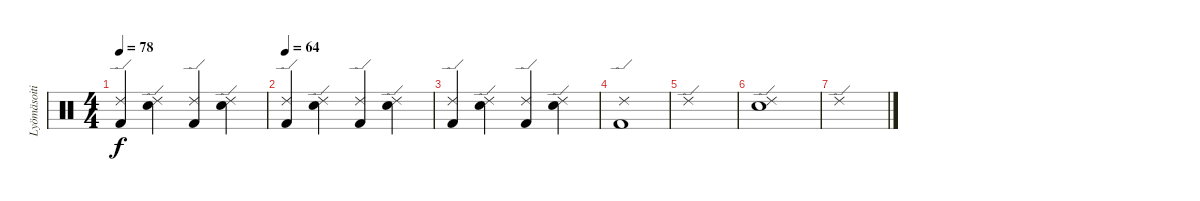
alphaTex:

\track ("Lyömäsoitin" "Lyömäsoiti") {instrument percussion}
\staff {score}
\articulation defaults
\ts (4 4)
\tempo 78
\clef neutral
\ks c
("Ride (edge) 2" "Kick (hit) 2").4{dy f} ("Ride (edge) 2" "Snare (hit) 2").4 ("Ride (edge) 2" "Kick (hit) 2").4 ("Ride (edge) 2" "Snare (hit) 2").4 |
\tempo 64
("Ride (edge) 2" "Kick (hit) 2").4 ("Ride (edge) 2" "Snare (hit) 2").4 ("Ride (edge) 2" "Kick (hit) 2").4 ("Ride (edge) 2" "Snare (hit) 2").4 |
("Ride (edge) 2" "Kick (hit) 2").4 ("Ride (edge) 2" "Snare (hit) 2").4 ("Ride (edge) 2" "Kick (hit) 2").4 ("Ride (edge) 2" "Snare (hit) 2").4 |
("Ride (edge) 2" "Kick (hit) 2").1 |
"Ride (edge) 2".1 |
("Ride (edge) 2" "Snare (hit) 2").1 |
"Ride (edge) 2".1
